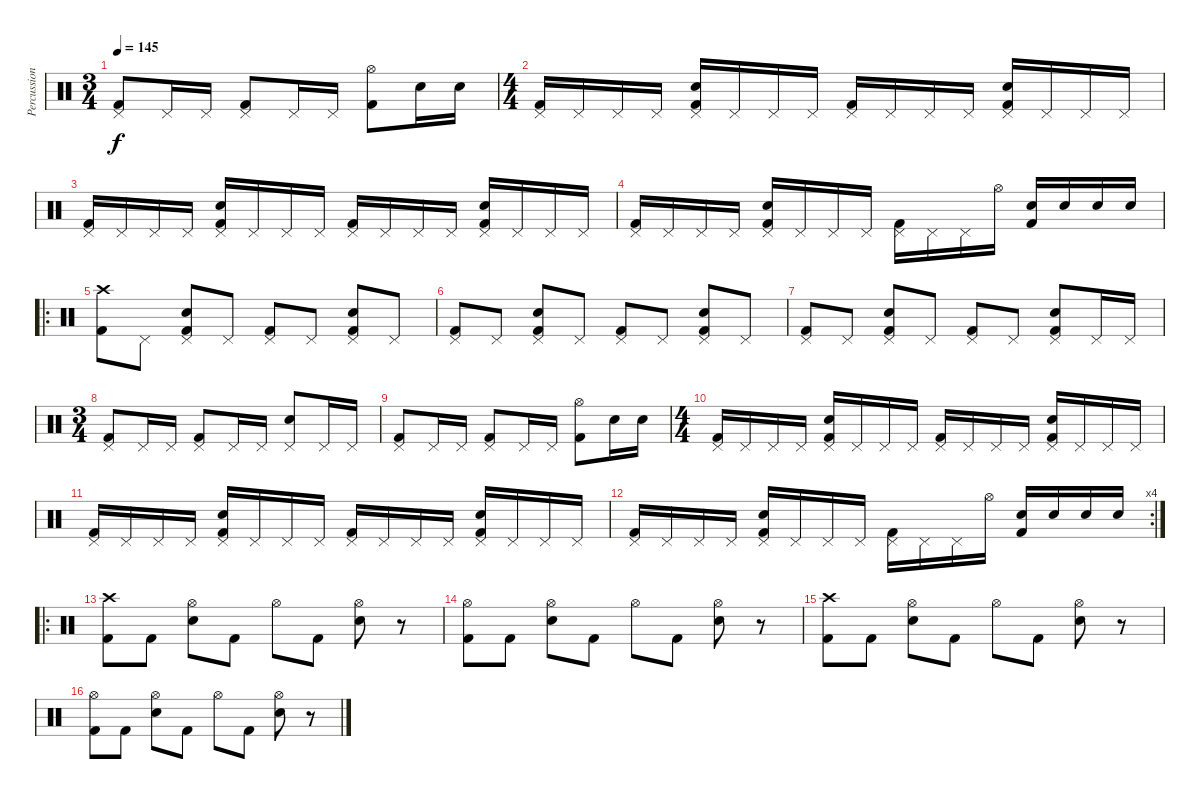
\track ("Percussion" "Percussion") {instrument percussion}
\staff {score}
\articulation defaults
\ts (3 4)
\tempo 145
\clef neutral
\ks c
("Pedal Hi-Hat (hit)" "Kick (hit) 2").8{dy f} "Pedal Hi-Hat (hit)".16 "Pedal Hi-Hat (hit)".16 ("Pedal Hi-Hat (hit)" "Kick (hit) 2").8 "Pedal Hi-Hat (hit)".16 "Pedal Hi-Hat (hit)".16 ("Hi-Hat (open)" "Kick (hit) 2").8 "Electric Snare (hit)".16 "Electric Snare (hit)".16 |
\ts (4 4)
("Pedal Hi-Hat (hit)" "Kick (hit) 2").16 "Pedal Hi-Hat (hit)".16 "Pedal Hi-Hat (hit)".16 "Pedal Hi-Hat (hit)".16 ("Pedal Hi-Hat (hit)" "Kick (hit) 2" "Electric Snare (hit)").16 "Pedal Hi-Hat (hit)".16 "Pedal Hi-Hat (hit)".16 "Pedal Hi-Hat (hit)".16 ("Pedal Hi-Hat (hit)" "Kick (hit) 2").16 "Pedal Hi-Hat (hit)".16 "Pedal Hi-Hat (hit)".16 "Pedal Hi-Hat (hit)".16 ("Pedal Hi-Hat (hit)" "Kick (hit) 2" "Electric Snare (hit)").16 "Pedal Hi-Hat (hit)".16 "Pedal Hi-Hat (hit)".16 "Pedal Hi-Hat (hit)".16 |
("Pedal Hi-Hat (hit)" "Kick (hit) 2").16 "Pedal Hi-Hat (hit)".16 "Pedal Hi-Hat (hit)".16 "Pedal Hi-Hat (hit)".16 ("Pedal Hi-Hat (hit)" "Kick (hit) 2" "Electric Snare (hit)").16 "Pedal Hi-Hat (hit)".16 "Pedal Hi-Hat (hit)".16 "Pedal Hi-Hat (hit)".16 ("Pedal Hi-Hat (hit)" "Kick (hit) 2").16 "Pedal Hi-Hat (hit)".16 "Pedal Hi-Hat (hit)".16 "Pedal Hi-Hat (hit)".16 ("Pedal Hi-Hat (hit)" "Kick (hit) 2" "Electric Snare (hit)").16 "Pedal Hi-Hat (hit)".16 "Pedal Hi-Hat (hit)".16 "Pedal Hi-Hat (hit)".16 |
("Pedal Hi-Hat (hit)" "Kick (hit) 2").16 "Pedal Hi-Hat (hit)".16 "Pedal Hi-Hat (hit)".16 "Pedal Hi-Hat (hit)".16 ("Pedal Hi-Hat (hit)" "Kick (hit) 2" "Electric Snare (hit)").16 "Pedal Hi-Hat (hit)".16 "Pedal Hi-Hat (hit)".16 "Pedal Hi-Hat (hit)".16 ("Pedal Hi-Hat (hit)" "Kick (hit) 2").16 "Pedal Hi-Hat (hit)".16 "Pedal Hi-Hat (hit)".16 "Hi-Hat (open)".16 ("Kick (hit) 2" "Electric Snare (hit)").16 "Electric Snare (hit)".16 "Electric Snare (hit)".16 "Electric Snare (hit)".16 |
\ro
("Crash high (hit)" "Kick (hit) 2").8 "Pedal Hi-Hat (hit)".8 ("Pedal Hi-Hat (hit)" "Kick (hit) 2" "Electric Snare (hit)").8 "Pedal Hi-Hat (hit)".8 ("Pedal Hi-Hat (hit)" "Kick (hit) 2").8 "Pedal Hi-Hat (hit)".8 ("Pedal Hi-Hat (hit)" "Kick (hit) 2" "Electric Snare (hit)").8 "Pedal Hi-Hat (hit)".8 |
("Pedal Hi-Hat (hit)" "Kick (hit) 2").8 "Pedal Hi-Hat (hit)".8 ("Pedal Hi-Hat (hit)" "Kick (hit) 2" "Electric Snare (hit)").8 "Pedal Hi-Hat (hit)".8 ("Pedal Hi-Hat (hit)" "Kick (hit) 2").8 "Pedal Hi-Hat (hit)".8 ("Pedal Hi-Hat (hit)" "Kick (hit) 2" "Electric Snare (hit)").8 "Pedal Hi-Hat (hit)".8 |
("Pedal Hi-Hat (hit)" "Kick (hit) 2").8 "Pedal Hi-Hat (hit)".8 ("Pedal Hi-Hat (hit)" "Kick (hit) 2" "Electric Snare (hit)").8 "Pedal Hi-Hat (hit)".8 ("Pedal Hi-Hat (hit)" "Kick (hit) 2").8 "Pedal Hi-Hat (hit)".8 ("Pedal Hi-Hat (hit)" "Kick (hit) 2" "Electric Snare (hit)").8 "Pedal Hi-Hat (hit)".16 "Pedal Hi-Hat (hit)".16 |
\ts (3 4)
("Pedal Hi-Hat (hit)" "Kick (hit) 2").8 "Pedal Hi-Hat (hit)".16 "Pedal Hi-Hat (hit)".16 ("Pedal Hi-Hat (hit)" "Kick (hit) 2").8 "Pedal Hi-Hat (hit)".16 "Pedal Hi-Hat (hit)".16 ("Pedal Hi-Hat (hit)" "Electric Snare (hit)").8 "Pedal Hi-Hat (hit)".16 "Pedal Hi-Hat (hit)".16 |
("Pedal Hi-Hat (hit)" "Kick (hit) 2").8 "Pedal Hi-Hat (hit)".16 "Pedal Hi-Hat (hit)".16 ("Pedal Hi-Hat (hit)" "Kick (hit) 2").8 "Pedal Hi-Hat (hit)".16 "Pedal Hi-Hat (hit)".16 ("Hi-Hat (open)" "Kick (hit) 2").8 "Electric Snare (hit)".16 "Electric Snare (hit)".16 |
\ts (4 4)
("Pedal Hi-Hat (hit)" "Kick (hit) 2").16 "Pedal Hi-Hat (hit)".16 "Pedal Hi-Hat (hit)".16 "Pedal Hi-Hat (hit)".16 ("Pedal Hi-Hat (hit)" "Kick (hit) 2" "Electric Snare (hit)").16 "Pedal Hi-Hat (hit)".16 "Pedal Hi-Hat (hit)".16 "Pedal Hi-Hat (hit)".16 ("Pedal Hi-Hat (hit)" "Kick (hit) 2").16 "Pedal Hi-Hat (hit)".16 "Pedal Hi-Hat (hit)".16 "Pedal Hi-Hat (hit)".16 ("Pedal Hi-Hat (hit)" "Kick (hit) 2" "Electric Snare (hit)").16 "Pedal Hi-Hat (hit)".16 "Pedal Hi-Hat (hit)".16 "Pedal Hi-Hat (hit)".16 |
("Pedal Hi-Hat (hit)" "Kick (hit) 2").16 "Pedal Hi-Hat (hit)".16 "Pedal Hi-Hat (hit)".16 "Pedal Hi-Hat (hit)".16 ("Pedal Hi-Hat (hit)" "Kick (hit) 2" "Electric Snare (hit)").16 "Pedal Hi-Hat (hit)".16 "Pedal Hi-Hat (hit)".16 "Pedal Hi-Hat (hit)".16 ("Pedal Hi-Hat (hit)" "Kick (hit) 2").16 "Pedal Hi-Hat (hit)".16 "Pedal Hi-Hat (hit)".16 "Pedal Hi-Hat (hit)".16 ("Pedal Hi-Hat (hit)" "Kick (hit) 2" "Electric Snare (hit)").16 "Pedal Hi-Hat (hit)".16 "Pedal Hi-Hat (hit)".16 "Pedal Hi-Hat (hit)".16 |
\rc 4
("Pedal Hi-Hat (hit)" "Kick (hit) 2").16 "Pedal Hi-Hat (hit)".16 "Pedal Hi-Hat (hit)".16 "Pedal Hi-Hat (hit)".16 ("Pedal Hi-Hat (hit)" "Kick (hit) 2" "Electric Snare (hit)").16 "Pedal Hi-Hat (hit)".16 "Pedal Hi-Hat (hit)".16 "Pedal Hi-Hat (hit)".16 ("Pedal Hi-Hat (hit)" "Kick (hit) 2").16 "Pedal Hi-Hat (hit)".16 "Pedal Hi-Hat (hit)".16 "Hi-Hat (open)".16 ("Kick (hit) 2" "Electric Snare (hit)").16 "Electric Snare (hit)".16 "Electric Snare (hit)".16 "Electric Snare (hit)".16 |
\ro
("Crash high (hit)" "Kick (hit) 2").8 "Kick (hit) 2".8 ("Electric Snare (hit)" "Hi-Hat (open)").8 "Kick (hit) 2".8 "Hi-Hat (open)".8 "Kick (hit) 2".8 ("Hi-Hat (open)" "Electric Snare (hit)").8 r.8 |
("Hi-Hat (open)" "Kick (hit) 2").8 "Kick (hit) 2".8 ("Hi-Hat (open)" "Electric Snare (hit)").8 "Kick (hit) 2".8 "Hi-Hat (open)".8 "Kick (hit) 2".8 ("Hi-Hat (open)" "Electric Snare (hit)").8 r.8 |
("Crash high (hit)" "Kick (hit) 2").8 "Kick (hit) 2".8 ("Electric Snare (hit)" "Hi-Hat (open)").8 "Kick (hit) 2".8 "Hi-Hat (open)".8 "Kick (hit) 2".8 ("Hi-Hat (open)" "Electric Snare (hit)").8 r.8 |
("Hi-Hat (open)" "Kick (hit) 2").8 "Kick (hit) 2".8 ("Hi-Hat (open)" "Electric Snare (hit)").8 "Kick (hit) 2".8 "Hi-Hat (open)".8 "Kick (hit) 2".8 ("Hi-Hat (open)" "Electric Snare (hit)").8 r.8
